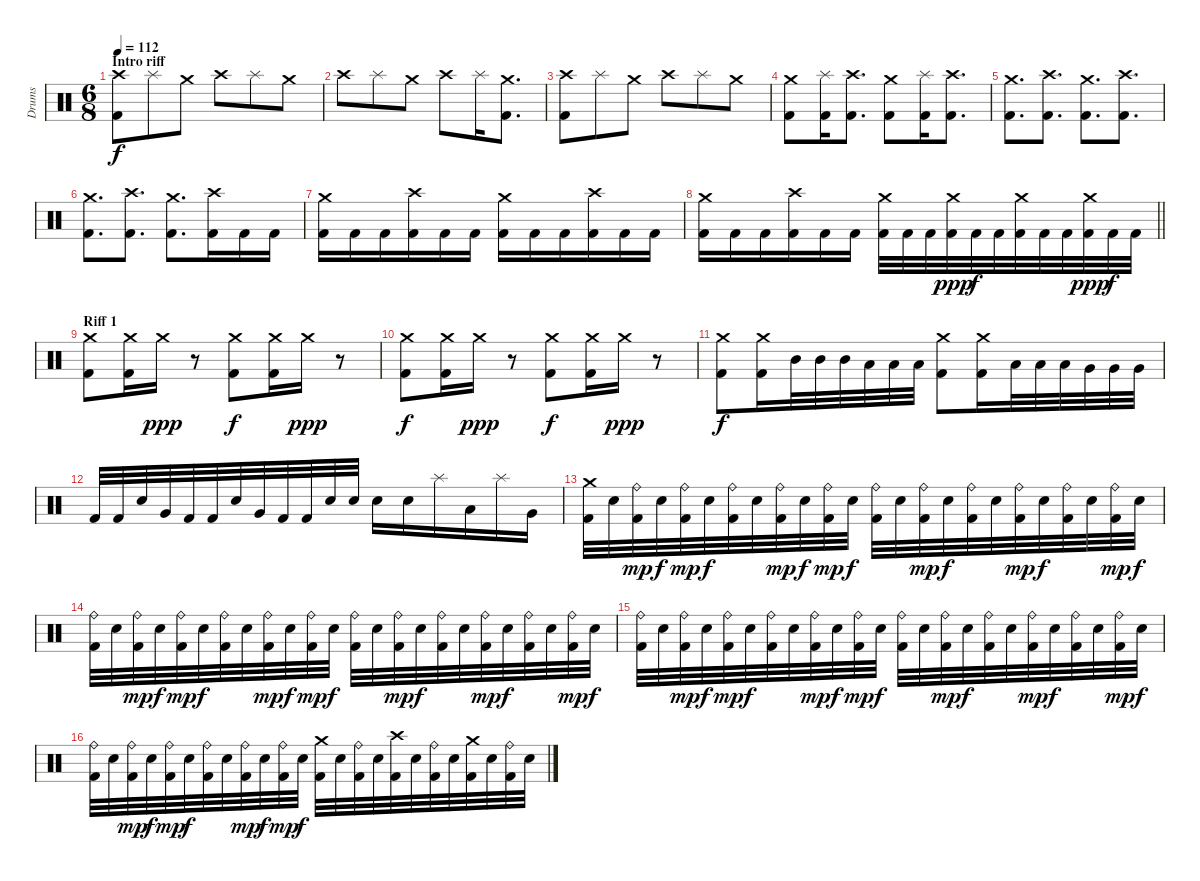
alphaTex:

\track ("Drums" "Drums") {instrument percussion}
\staff {score}
\articulation defaults
\ts (6 8)
\section ("" "Intro riff")
\tempo 112
\clef neutral
\ks c
("Crash high (hit)" "Kick (hit) 2").8{dy f} "Splash (hit)".8 "Crash medium (hit)".8 "Crash high (hit)".8 "Splash (hit)".8 "Crash medium (hit)".8 |
"Crash high (hit)".8 "Splash (hit)".8 "Crash medium (hit)".8 "Crash high (hit)".8 "Splash (hit)".16 ("Kick (hit) 2" "Crash medium (hit)").8{d} |
("Crash high (hit)" "Kick (hit) 2").8 "Splash (hit)".8 "Crash medium (hit)".8 "Crash high (hit)".8 "Splash (hit)".8 "Crash medium (hit)".8 |
("Kick (hit) 2" "Crash medium (hit)").8 ("Kick (hit) 2" "Splash (hit)").16 ("Kick (hit) 2" "Crash high (hit)").8{d} ("Kick (hit) 2" "Crash medium (hit)").8 ("Kick (hit) 2" "Splash (hit)").16 ("Kick (hit) 2" "Crash high (hit)").8{d} |
("Kick (hit) 2" "Crash medium (hit)").8{d} ("Kick (hit) 2" "Crash high (hit)").8{d} ("Kick (hit) 2" "Crash medium (hit)").8{d} ("Kick (hit) 2" "Crash high (hit)").8{d} |
("Kick (hit) 2" "Crash medium (hit)").8{d} ("Kick (hit) 2" "Crash high (hit)").8{d} ("Kick (hit) 2" "Crash medium (hit)").8{d} ("Kick (hit) 2" "Crash high (hit)").16 "Kick (hit) 2".16 "Kick (hit) 2".16 |
("Crash medium (hit)" "Kick (hit) 2").16 "Kick (hit) 2".16 "Kick (hit) 2".16 ("Crash high (hit)" "Kick (hit) 2").16 "Kick (hit) 2".16 "Kick (hit) 2".16 ("Crash medium (hit)" "Kick (hit) 2").16 "Kick (hit) 2".16 "Kick (hit) 2".16 ("Crash high (hit)" "Kick (hit) 2").16 "Kick (hit) 2".16 "Kick (hit) 2".16 |
\barLineRight lightlight
("Crash medium (hit)" "Kick (hit) 2").16 "Kick (hit) 2".16 "Kick (hit) 2".16 ("Crash high (hit)" "Kick (hit) 2").16 "Kick (hit) 2".16 "Kick (hit) 2".16 ("Kick (hit) 2" "Crash medium (hit)").32 "Kick (hit) 2".32 "Kick (hit) 2".32 ("Kick (hit) 2" "Crash medium (hit)").32{dy ppp} "Kick (hit) 2".32{dy f} "Kick (hit) 2".32 ("Kick (hit) 2" "Crash medium (hit)").32 "Kick (hit) 2".32 "Kick (hit) 2".32 ("Kick (hit) 2" "Crash medium (hit)").32{dy ppp} "Kick (hit) 2".32{dy f} "Kick (hit) 2".32 |
\section ("" "Riff 1")
("Crash medium (hit)" "Kick (hit) 2").8 ("Crash medium (hit)" "Kick (hit) 2").16 "Crash medium (hit)".16{dy ppp} r.8 ("Crash medium (hit)" "Kick (hit) 2").8{dy f} ("Crash medium (hit)" "Kick (hit) 2").16 "Crash medium (hit)".16{dy ppp} r.8 |
("Crash medium (hit)" "Kick (hit) 2").8{dy f} ("Crash medium (hit)" "Kick (hit) 2").16 "Crash medium (hit)".16{dy ppp} r.8 ("Crash medium (hit)" "Kick (hit) 2").8{dy f} ("Crash medium (hit)" "Kick (hit) 2").16 "Crash medium (hit)".16{dy ppp} r.8 |
("Crash medium (hit)" "Kick (hit) 2").8{dy f} ("Crash medium (hit)" "Kick (hit) 2").16 "Mid Tom (hit)".32 "Mid Tom (hit)".32 "Mid Tom (hit)".32 "Low Tom (hit)".32 "Low Tom (hit)".32 "Low Tom (hit)".32 ("Crash medium (hit)" "Kick (hit) 2").8 ("Crash medium (hit)" "Kick (hit) 2").16 "Low Tom (hit)".32 "Low Tom (hit)".32 "Low Tom (hit)".32 "Very Low Tom (hit)".32 "Very Low Tom (hit)".32 "Very Low Tom (hit)".32 |
"Kick (hit) 2".32 "Kick (hit) 2".32 "Electric Snare (hit)".32 "Very Low Tom (hit)".32 "Kick (hit) 2".32 "Kick (hit) 2".32 "Electric Snare (hit)".32 "Very Low Tom (hit)".32 "Kick (hit) 2".32 "Kick (hit) 2".32 "Electric Snare (hit)".32 "Electric Snare (hit)".32 "Electric Snare (hit)".16 "Electric Snare (hit)".16 "Splash (hit)".16 "Low Tom (hit)".16 "Splash (hit)".16 "Very Low Tom (hit)".16 |
("Crash medium (hit)" "Kick (hit) 2").32 "Electric Snare (hit)".32 ("Ride (bell)" "Kick (hit) 2").32{dy mp} "Electric Snare (hit)".32{dy f} ("Ride (bell)" "Kick (hit) 2").32{dy mp} "Electric Snare (hit)".32{dy f} ("Ride (bell)" "Kick (hit) 2").32 "Electric Snare (hit)".32 ("Ride (bell)" "Kick (hit) 2").32{dy mp} "Electric Snare (hit)".32{dy f} ("Ride (bell)" "Kick (hit) 2").32{dy mp} "Electric Snare (hit)".32{dy f} ("Ride (bell)" "Kick (hit) 2").32 "Electric Snare (hit)".32 ("Ride (bell)" "Kick (hit) 2").32{dy mp} "Electric Snare (hit)".32{dy f} ("Ride (bell)" "Kick (hit) 2").32 "Electric Snare (hit)".32 ("Ride (bell)" "Kick (hit) 2").32{dy mp} "Electric Snare (hit)".32{dy f} ("Ride (bell)" "Kick (hit) 2").32 "Electric Snare (hit)".32 ("Ride (bell)" "Kick (hit) 2").32{dy mp} "Electric Snare (hit)".32{dy f} |
("Ride (bell)" "Kick (hit) 2").32 "Electric Snare (hit)".32 ("Ride (bell)" "Kick (hit) 2").32{dy mp} "Electric Snare (hit)".32{dy f} ("Ride (bell)" "Kick (hit) 2").32{dy mp} "Electric Snare (hit)".32{dy f} ("Ride (bell)" "Kick (hit) 2").32 "Electric Snare (hit)".32 ("Ride (bell)" "Kick (hit) 2").32{dy mp} "Electric Snare (hit)".32{dy f} ("Ride (bell)" "Kick (hit) 2").32{dy mp} "Electric Snare (hit)".32{dy f} ("Ride (bell)" "Kick (hit) 2").32 "Electric Snare (hit)".32 ("Ride (bell)" "Kick (hit) 2").32{dy mp} "Electric Snare (hit)".32{dy f} ("Ride (bell)" "Kick (hit) 2").32 "Electric Snare (hit)".32 ("Ride (bell)" "Kick (hit) 2").32{dy mp} "Electric Snare (hit)".32{dy f} ("Ride (bell)" "Kick (hit) 2").32 "Electric Snare (hit)".32 ("Ride (bell)" "Kick (hit) 2").32{dy mp} "Electric Snare (hit)".32{dy f} |
("Ride (bell)" "Kick (hit) 2").32 "Electric Snare (hit)".32 ("Ride (bell)" "Kick (hit) 2").32{dy mp} "Electric Snare (hit)".32{dy f} ("Ride (bell)" "Kick (hit) 2").32{dy mp} "Electric Snare (hit)".32{dy f} ("Ride (bell)" "Kick (hit) 2").32 "Electric Snare (hit)".32 ("Ride (bell)" "Kick (hit) 2").32{dy mp} "Electric Snare (hit)".32{dy f} ("Ride (bell)" "Kick (hit) 2").32{dy mp} "Electric Snare (hit)".32{dy f} ("Ride (bell)" "Kick (hit) 2").32 "Electric Snare (hit)".32 ("Ride (bell)" "Kick (hit) 2").32{dy mp} "Electric Snare (hit)".32{dy f} ("Ride (bell)" "Kick (hit) 2").32 "Electric Snare (hit)".32 ("Ride (bell)" "Kick (hit) 2").32{dy mp} "Electric Snare (hit)".32{dy f} ("Ride (bell)" "Kick (hit) 2").32 "Electric Snare (hit)".32 ("Ride (bell)" "Kick (hit) 2").32{dy mp} "Electric Snare (hit)".32{dy f} |
("Ride (bell)" "Kick (hit) 2").32 "Electric Snare (hit)".32 ("Ride (bell)" "Kick (hit) 2").32{dy mp} "Electric Snare (hit)".32{dy f} ("Ride (bell)" "Kick (hit) 2").32{dy mp} "Electric Snare (hit)".32{dy f} ("Ride (bell)" "Kick (hit) 2").32 "Electric Snare (hit)".32 ("Ride (bell)" "Kick (hit) 2").32{dy mp} "Electric Snare (hit)".32{dy f} ("Ride (bell)" "Kick (hit) 2").32{dy mp} "Electric Snare (hit)".32{dy f} ("Crash medium (hit)" "Kick (hit) 2").32 "Electric Snare (hit)".32 ("Ride (bell)" "Kick (hit) 2").32 "Electric Snare (hit)".32 ("Crash high (hit)" "Kick (hit) 2").32 "Electric Snare (hit)".32 ("Ride (bell)" "Kick (hit) 2").32 "Electric Snare (hit)".32 ("Crash medium (hit)" "Kick (hit) 2").32 "Electric Snare (hit)".32 ("Ride (bell)" "Kick (hit) 2").32 "Electric Snare (hit)".32
